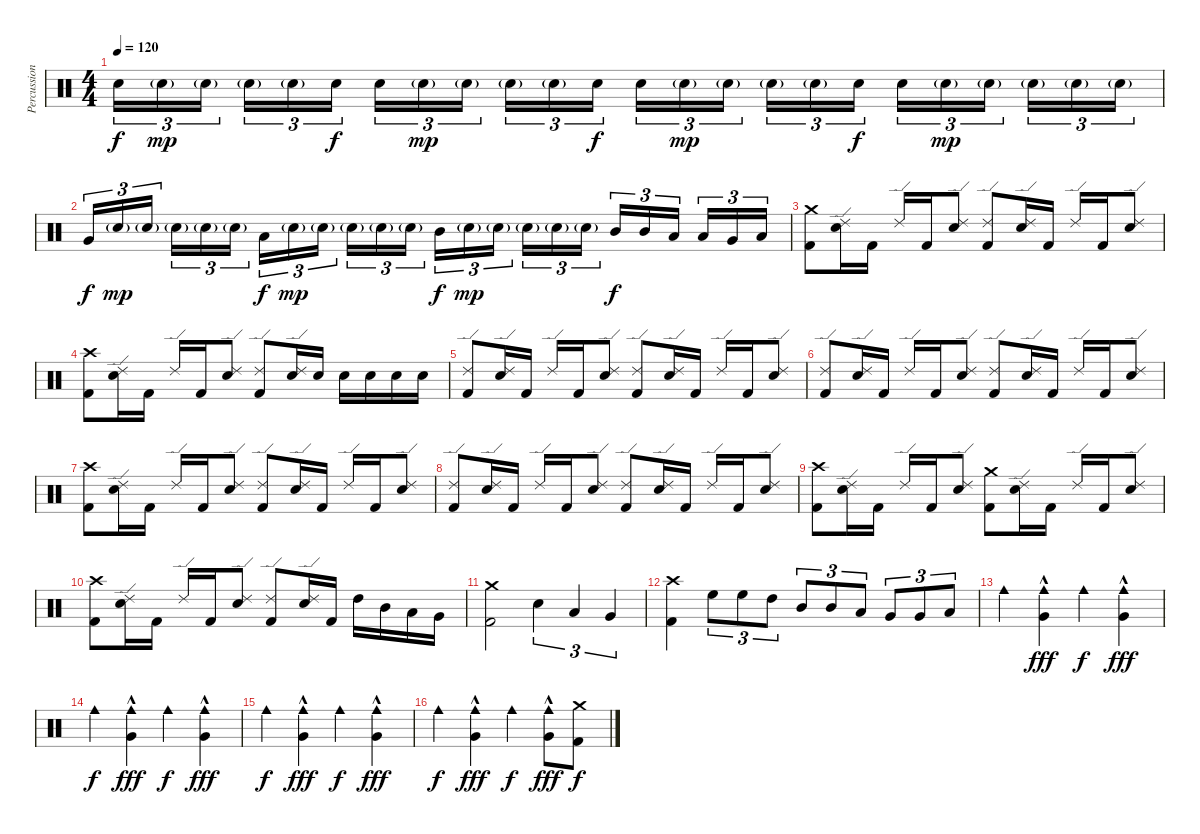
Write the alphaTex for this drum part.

\track ("Percussion" "Percussion") {instrument percussion}
\staff {score}
\articulation defaults
\ts (4 4)
\tempo 120
\clef neutral
\ks c "Electric Snare (hit)".16{tu (3 2) dy f} "Electric Snare (hit)"{g}.16{tu (3 2) dy mp} "Electric Snare (hit)"{g}.16{tu (3 2) beam splitsecondary} "Electric Snare (hit)"{g}.16{tu (3 2)} "Electric Snare (hit)"{g}.16{tu (3 2)} "Electric Snare (hit)".16{tu (3 2) dy f} "Electric Snare (hit)".16{tu (3 2)} "Electric Snare (hit)"{g}.16{tu (3 2) dy mp} "Electric Snare (hit)"{g}.16{tu (3 2) beam splitsecondary} "Electric Snare (hit)"{g}.16{tu (3 2)} "Electric Snare (hit)"{g}.16{tu (3 2)} "Electric Snare (hit)".16{tu (3 2) dy f} "Electric Snare (hit)".16{tu (3 2)} "Electric Snare (hit)"{g}.16{tu (3 2) dy mp} "Electric Snare (hit)"{g}.16{tu (3 2) beam splitsecondary} "Electric Snare (hit)"{g}.16{tu (3 2)} "Electric Snare (hit)"{g}.16{tu (3 2)} "Electric Snare (hit)".16{tu (3 2) dy f} "Electric Snare (hit)".16{tu (3 2)} "Electric Snare (hit)"{g}.16{tu (3 2) dy mp} "Electric Snare (hit)"{g}.16{tu (3 2) beam splitsecondary} "Electric Snare (hit)"{g}.16{tu (3 2)} "Electric Snare (hit)"{g}.16{tu (3 2)} "Electric Snare (hit)"{g}.16{tu (3 2)}
|
"Very Low Tom (hit)".16{tu (3 2) dy f} "Electric Snare (hit)"{g}.16{tu (3 2) dy mp} "Electric Snare (hit)"{g}.16{tu (3 2) beam splitsecondary} "Electric Snare (hit)"{g}.16{tu (3 2)} "Electric Snare (hit)"{g}.16{tu (3 2)} "Electric Snare (hit)"{g}.16{tu (3 2)} "Low Tom (hit)".16{tu (3 2) dy f} "Electric Snare (hit)"{g}.16{tu (3 2) dy mp} "Electric Snare (hit)"{g}.16{tu (3 2) beam splitsecondary} "Electric Snare (hit)"{g}.16{tu (3 2)} "Electric Snare (hit)"{g}.16{tu (3 2)} "Electric Snare (hit)"{g}.16{tu (3 2)} "Mid Tom (hit)".16{tu (3 2) dy f} "Electric Snare (hit)"{g}.16{tu (3 2) dy mp} "Electric Snare (hit)"{g}.16{tu (3 2) beam splitsecondary} "Electric Snare (hit)"{g}.16{tu (3 2)} "Electric Snare (hit)"{g}.16{tu (3 2)} "Electric Snare (hit)"{g}.16{tu (3 2)} "Mid Tom (hit)".16{tu (3 2) dy f} "Mid Tom (hit)".16{tu (3 2)} "Low Tom (hit)".16{tu (3 2) beam splitsecondary} "Low Tom (hit)".16{tu (3 2)} "Very Low Tom (hit)".16{tu (3 2)} "Low Floor Tom (hit)".16{tu (3 2)} |
("Crash medium (hit)" "Kick (hit) 2").8 ("Ride (edge) 2" "Electric Snare (hit)").16 "Kick (hit) 2".16 "Ride (edge) 2".16 "Kick (hit) 2".16 ("Ride (edge) 2" "Electric Snare (hit)").8 ("Ride (edge) 2" "Kick (hit) 2").8 ("Ride (edge) 2" "Electric Snare (hit)").16 "Kick (hit) 2".16 "Ride (edge) 2".16 "Kick (hit) 2".16 ("Ride (edge) 2" "Electric Snare (hit)").8 |
("Crash high (hit)" "Kick (hit) 2").8 ("Ride (edge) 2" "Electric Snare (hit)").16 "Kick (hit) 2".16 "Ride (edge) 2".16 "Kick (hit) 2".16 ("Ride (edge) 2" "Electric Snare (hit)").8 ("Ride (edge) 2" "Kick (hit) 2").8 ("Ride (edge) 2" "Electric Snare (hit)").16 "Electric Snare (hit)".16 "Electric Snare (hit)".16 "Electric Snare (hit)".16 "Electric Snare (hit)".16 "Electric Snare (hit)".16 |
("Ride (edge) 2" "Kick (hit) 2").8 ("Ride (edge) 2" "Electric Snare (hit)").16 "Kick (hit) 2".16 "Ride (edge) 2".16 "Kick (hit) 2".16 ("Ride (edge) 2" "Electric Snare (hit)").8 ("Ride (edge) 2" "Kick (hit) 2").8 ("Ride (edge) 2" "Electric Snare (hit)").16 "Kick (hit) 2".16 "Ride (edge) 2".16 "Kick (hit) 2".16 ("Ride (edge) 2" "Electric Snare (hit)").8 |
("Ride (edge) 2" "Kick (hit) 2").8 ("Ride (edge) 2" "Electric Snare (hit)").16 "Kick (hit) 2".16 "Ride (edge) 2".16 "Kick (hit) 2".16 ("Ride (edge) 2" "Electric Snare (hit)").8 ("Ride (edge) 2" "Kick (hit) 2").8 ("Ride (edge) 2" "Electric Snare (hit)").16 "Kick (hit) 2".16 "Ride (edge) 2".16 "Kick (hit) 2".16 ("Ride (edge) 2" "Electric Snare (hit)").8 |
("Crash high (hit)" "Kick (hit) 2").8 ("Ride (edge) 2" "Electric Snare (hit)").16 "Kick (hit) 2".16 "Ride (edge) 2".16 "Kick (hit) 2".16 ("Ride (edge) 2" "Electric Snare (hit)").8 ("Ride (edge) 2" "Kick (hit) 2").8 ("Ride (edge) 2" "Electric Snare (hit)").16 "Kick (hit) 2".16 "Ride (edge) 2".16 "Kick (hit) 2".16 ("Ride (edge) 2" "Electric Snare (hit)").8 |
("Ride (edge) 2" "Kick (hit) 2").8 ("Ride (edge) 2" "Electric Snare (hit)").16 "Kick (hit) 2".16 "Ride (edge) 2".16 "Kick (hit) 2".16 ("Ride (edge) 2" "Electric Snare (hit)").8 ("Ride (edge) 2" "Kick (hit) 2").8 ("Ride (edge) 2" "Electric Snare (hit)").16 "Kick (hit) 2".16 "Ride (edge) 2".16 "Kick (hit) 2".16 ("Ride (edge) 2" "Electric Snare (hit)").8 |
("Crash high (hit)" "Kick (hit) 2").8 ("Ride (edge) 2" "Electric Snare (hit)").16 "Kick (hit) 2".16 "Ride (edge) 2".16 "Kick (hit) 2".16 ("Ride (edge) 2" "Electric Snare (hit)").8 ("Crash medium (hit)" "Kick (hit) 2").8 ("Ride (edge) 2" "Electric Snare (hit)").16 "Kick (hit) 2".16 "Ride (edge) 2".16 "Kick (hit) 2".16 ("Ride (edge) 2" "Electric Snare (hit)").8 |
("Crash high (hit)" "Kick (hit) 2").8 ("Ride (edge) 2" "Electric Snare (hit)").16 "Kick (hit) 2".16 "Ride (edge) 2".16 "Kick (hit) 2".16 ("Ride (edge) 2" "Electric Snare (hit)").8 ("Ride (edge) 2" "Kick (hit) 2").8 ("Ride (edge) 2" "Electric Snare (hit)").16 "Kick (hit) 2".16 "High Tom (hit)".16 "Mid Tom (hit)".16 "Low Tom (hit)".16 "Very Low Tom (hit)".16 |
("Crash medium (hit)" "Kick (hit) 2").2 "Electric Snare (hit)".4{tu (3 2)} "Low Tom (hit)".4{tu (3 2)} "Very Low Tom (hit)".4{tu (3 2)} |
("Crash high (hit)" "Kick (hit) 2").4 "High Floor Tom (hit)".8{tu (3 2)} "High Floor Tom (hit)".8{tu (3 2)} "High Tom (hit)".8{tu (3 2)} "Mid Tom (hit)".8{tu (3 2)} "Mid Tom (hit)".8{tu (3 2)} "Low Tom (hit)".8{tu (3 2)} "Very Low Tom (hit)".8{tu (3 2)} "Very Low Tom (hit)".8{tu (3 2)} "Low Floor Tom (hit)".8{tu (3 2)} |
"Cowbell medium (hit)".4 ("Cowbell medium (hit)" "Very Low Tom (hit)"{hac}).4{dy fff} "Cowbell medium (hit)".4{dy f} ("Cowbell medium (hit)" "Very Low Tom (hit)"{hac}).4{dy fff} |
"Cowbell medium (hit)".4{dy f} ("Cowbell medium (hit)" "Very Low Tom (hit)"{hac}).4{dy fff} "Cowbell medium (hit)".4{dy f} ("Cowbell medium (hit)" "Very Low Tom (hit)"{hac}).4{dy fff} |
"Cowbell medium (hit)".4{dy f} ("Cowbell medium (hit)" "Very Low Tom (hit)"{hac}).4{dy fff} "Cowbell medium (hit)".4{dy f} ("Cowbell medium (hit)" "Very Low Tom (hit)"{hac}).4{dy fff} |
"Cowbell medium (hit)".4{dy f} ("Cowbell medium (hit)" "Very Low Tom (hit)"{hac}).4{dy fff} "Cowbell medium (hit)".4{dy f} ("Cowbell medium (hit)" "Very Low Tom (hit)"{hac}).8{dy fff} ("Crash medium (hit)" "Kick (hit) 2").8{dy f}
